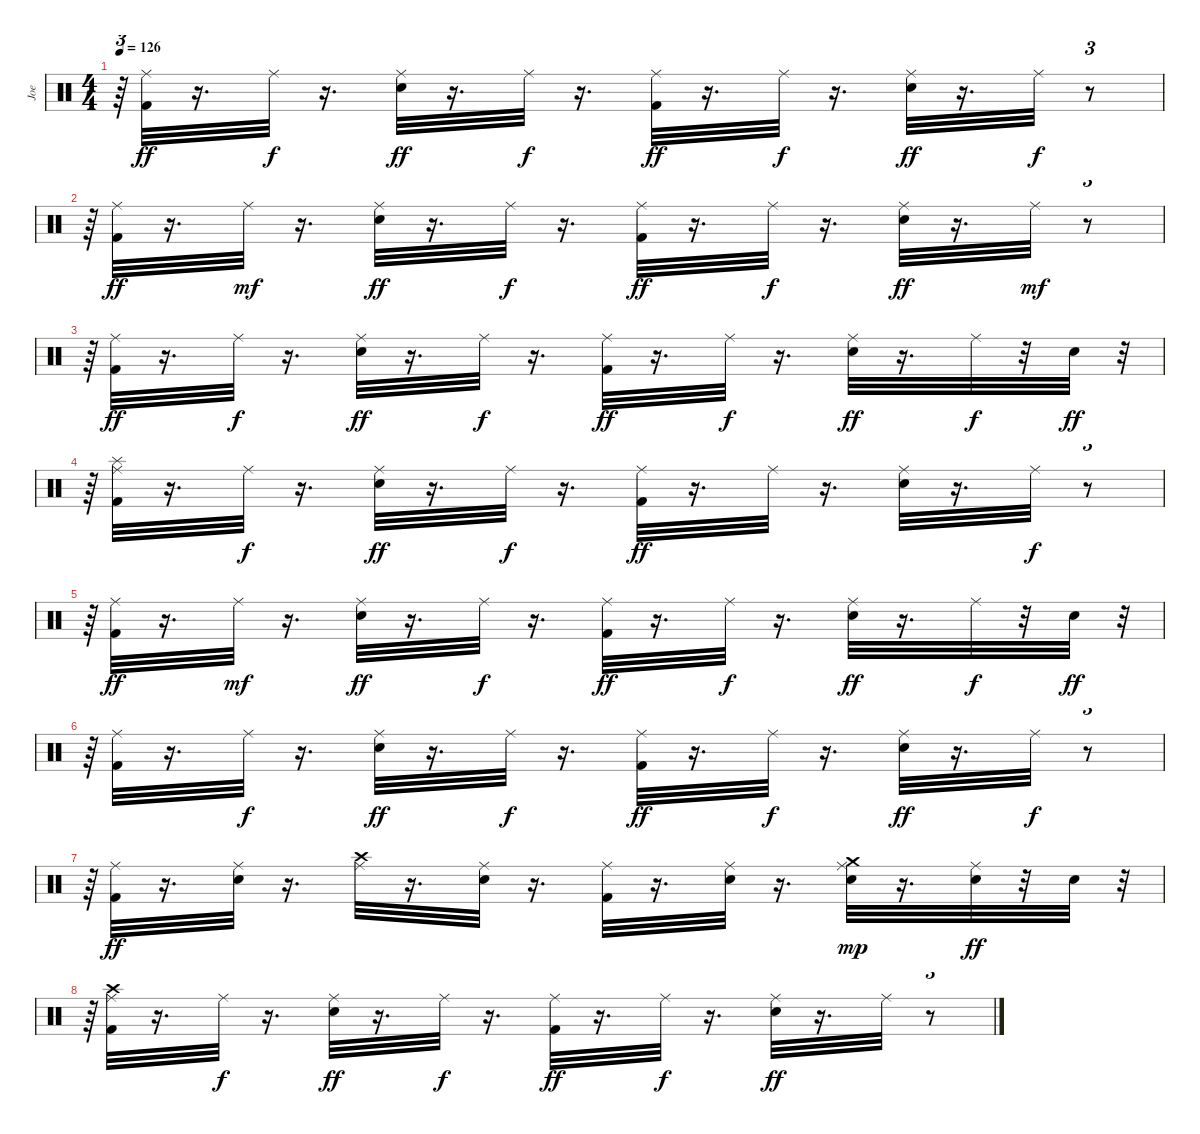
\track ("Joe" "Joe") {instrument percussion}
\staff {score}
\articulation defaults
\ts (4 4)
\tempo 126
\clef neutral
\ks c
r.64{tu (3 2) dy f} ("Ride (middle)" "Kick (hit) 2").32{dy ff} r.16{d} "Ride (middle)".32{dy f} r.16{d} ("Electric Snare (hit)" "Ride (middle)").32{dy ff} r.16{d} "Ride (middle)".32{dy f} r.16{d} ("Kick (hit) 2" "Ride (middle)").32{dy ff} r.16{d} "Ride (middle)".32{dy f} r.16{d} ("Electric Snare (hit)" "Ride (middle)").32{dy ff} r.16{d} "Ride (middle)".32{dy f} r.8{tu (3 2)} |
r.64{tu (3 2)} ("Kick (hit) 2" "Ride (middle)").32{dy ff} r.16{d} "Ride (middle)".32{dy mf} r.16{d} ("Electric Snare (hit)" "Ride (middle)").32{dy ff} r.16{d} "Ride (middle)".32{dy f} r.16{d} ("Ride (middle)" "Kick (hit) 2").32{dy ff} r.16{d} "Ride (middle)".32{dy f} r.16{d} ("Electric Snare (hit)" "Ride (middle)").32{dy ff} r.16{d} "Ride (middle)".32{dy mf} r.8{tu (3 2)} |
r.64{tu (3 2)} ("Ride (middle)" "Kick (hit) 2").32{dy ff} r.16{d} "Ride (middle)".32{dy f} r.16{d} ("Electric Snare (hit)" "Ride (middle)").32{dy ff} r.16{d} "Ride (middle)".32{dy f} r.16{d} ("Ride (middle)" "Kick (hit) 2").32{dy ff} r.16{d} "Ride (middle)".32{dy f} r.16{d} ("Electric Snare (hit)" "Ride (middle)").32{dy ff} r.16{d} "Ride (middle)".32{dy f} r.32 "Electric Snare (hit)".32{dy ff} r.32{tu (3 2)} |
r.64{tu (3 2)} ("Ride (middle)" "Splash (hit)" "Kick (hit) 2").32 r.16{d} "Ride (middle)".32{dy f} r.16{d} ("Ride (middle)" "Electric Snare (hit)").32{dy ff} r.16{d} "Ride (middle)".32{dy f} r.16{d} ("Ride (middle)" "Kick (hit) 2").32{dy ff} r.16{d} "Ride (middle)".32 r.16{d} ("Ride (middle)" "Electric Snare (hit)").32 r.16{d} "Ride (middle)".32{dy f} r.8{tu (3 2)} |
r.64{tu (3 2)} ("Kick (hit) 2" "Ride (middle)").32{dy ff} r.16{d} "Ride (middle)".32{dy mf} r.16{d} ("Electric Snare (hit)" "Ride (middle)").32{dy ff} r.16{d} "Ride (middle)".32{dy f} r.16{d} ("Kick (hit) 2" "Ride (middle)").32{dy ff} r.16{d} "Ride (middle)".32{dy f} r.16{d} ("Electric Snare (hit)" "Ride (middle)").32{dy ff} r.16{d} "Ride (middle)".32{dy f} r.32 "Electric Snare (hit)".32{dy ff} r.32{tu (3 2)} |
r.64{tu (3 2)} ("Kick (hit) 2" "Ride (middle)").32 r.16{d} "Ride (middle)".32{dy f} r.16{d} ("Electric Snare (hit)" "Ride (middle)").32{dy ff} r.16{d} "Ride (middle)".32{dy f} r.16{d} ("Kick (hit) 2" "Ride (middle)").32{dy ff} r.16{d} "Ride (middle)".32{dy f} r.16{d} ("Ride (middle)" "Electric Snare (hit)").32{dy ff} r.16{d} "Ride (middle)".32{dy f} r.8{tu (3 2)} |
r.64{tu (3 2)} ("Kick (hit) 2" "Ride (middle)").32{dy ff} r.16{d} ("Ride (middle)" "Electric Snare (hit)").32 r.16{d} ("Crash high (hit)" "Ride (middle)").32 r.16{d} ("Electric Snare (hit)" "Ride (middle)").32 r.16{d} ("Kick (hit) 2" "Ride (middle)").32 r.16{d} ("Electric Snare (hit)" "Ride (middle)").32 r.16{d} ("Electric Snare (hit)" "Ride (middle)" "Crash medium (hit)").32{dy mp} r.16{d} ("Electric Snare (hit)" "Ride (middle)").32{dy ff} r.32 "Electric Snare (hit)".32 r.32{tu (3 2)} |
r.64{tu (3 2)} ("Crash high (hit)" "Kick (hit) 2" "Ride (middle)").32 r.16{d} "Ride (middle)".32{dy f} r.16{d} ("Electric Snare (hit)" "Ride (middle)").32{dy ff} r.16{d} "Ride (middle)".32{dy f} r.16{d} ("Kick (hit) 2" "Ride (middle)").32{dy ff} r.16{d} "Ride (middle)".32{dy f} r.16{d} ("Ride (middle)" "Electric Snare (hit)").32{dy ff} r.16{d} "Ride (middle)".32 r.8{tu (3 2)}
